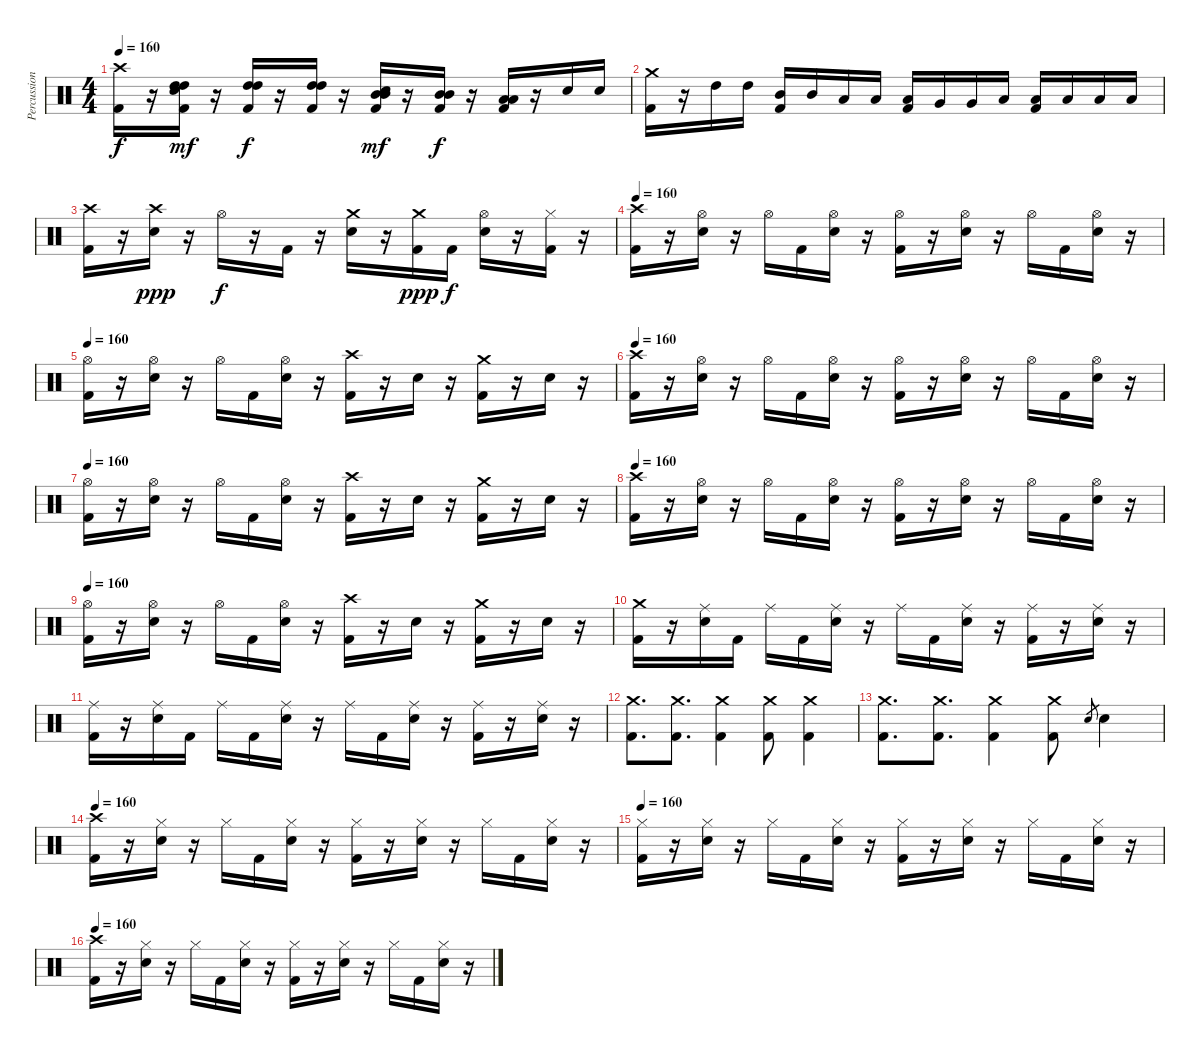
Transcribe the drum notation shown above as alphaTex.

\track ("Percussion" "Percussion") {instrument percussion}
\staff {score}
\articulation defaults
\ts (4 4)
\tempo 160
\clef neutral
\ks c
("Crash high (hit)" "Kick (hit) 2").16{dy f} r.16 ("High Tom (hit)" "Snare (hit) 2" "High Tom (hit)" "Kick (hit) 2").16{dy mf} r.16 ("High Tom (hit)" "High Tom (hit)" "Kick (hit) 2").16{dy f} r.16 ("High Tom (hit)" "High Tom (hit)" "Kick (hit) 2").16 r.16 ("Mid Tom (hit)" "Snare (hit) 2" "Mid Tom (hit)" "Kick (hit) 2").16{dy mf} r.16 ("Mid Tom (hit)" "Mid Tom (hit)" "Kick (hit) 2").16{dy f} r.16 ("Low Tom (hit)" "Low Tom (hit)" "Kick (hit) 2").16 r.16 "Snare (hit) 2".16 "Snare (hit) 2".16 |
("Crash medium (hit)" "Kick (hit) 2").16 r.16 "High Tom (hit)".16 "High Tom (hit)".16 ("Mid Tom (hit)" "Kick (hit) 2").16 "Mid Tom (hit)".16 "Low Tom (hit)".16 "Low Tom (hit)".16 ("Low Tom (hit)" "Kick (hit) 2").16 "Very Low Tom (hit)".16 "Very Low Tom (hit)".16 "Low Floor Tom (hit)".16 ("Low Floor Tom (hit)" "Kick (hit) 2").16 "Low Floor Tom (hit)".16 "Low Floor Tom (hit)".16 "Low Floor Tom (hit)".16 |
("Crash high (hit)" "Kick (hit) 2").16 r.16 ("Crash high (hit)" "Snare (hit) 2").16{dy ppp} r.16 "Hi-Hat (open)".16{dy f} r.16 "Kick (hit) 2".16 r.16 ("Crash medium (hit)" "Snare (hit) 2").16 r.16 ("Crash medium (hit)" "Kick (hit) 2").16{dy ppp} "Kick (hit) 2".16{dy f} ("Hi-Hat (open)" "Snare (hit) 2").16 r.16 ("Hi-Hat (closed)" "Kick (hit) 2").16 r.16 |
\tempo 160
("Crash high (hit)" "Kick (hit) 2").16 r.16 ("Hi-Hat (open)" "Snare (hit) 2").16 r.16 "Hi-Hat (open)".16 "Kick (hit) 2".16 ("Hi-Hat (open)" "Snare (hit) 2").16 r.16 ("Hi-Hat (open)" "Kick (hit) 2").16 r.16 ("Hi-Hat (open)" "Snare (hit) 2").16 r.16 "Hi-Hat (open)".16 "Kick (hit) 2".16 ("Hi-Hat (open)" "Snare (hit) 2").16 r.16 |
\tempo 160
("Hi-Hat (open)" "Kick (hit) 2").16 r.16 ("Hi-Hat (open)" "Snare (hit) 2").16 r.16 "Hi-Hat (open)".16 "Kick (hit) 2".16 ("Hi-Hat (open)" "Snare (hit) 2").16 r.16 ("Crash high (hit)" "Kick (hit) 2").16 r.16 "Snare (hit) 2".16 r.16 ("Crash medium (hit)" "Kick (hit) 2").16 r.16 "Snare (hit) 2".16 r.16 |
\tempo 160
("Crash high (hit)" "Kick (hit) 2").16 r.16 ("Hi-Hat (open)" "Snare (hit) 2").16 r.16 "Hi-Hat (open)".16 "Kick (hit) 2".16 ("Hi-Hat (open)" "Snare (hit) 2").16 r.16 ("Hi-Hat (open)" "Kick (hit) 2").16 r.16 ("Hi-Hat (open)" "Snare (hit) 2").16 r.16 "Hi-Hat (open)".16 "Kick (hit) 2".16 ("Hi-Hat (open)" "Snare (hit) 2").16 r.16 |
\tempo 160
("Hi-Hat (open)" "Kick (hit) 2").16 r.16 ("Hi-Hat (open)" "Snare (hit) 2").16 r.16 "Hi-Hat (open)".16 "Kick (hit) 2".16 ("Hi-Hat (open)" "Snare (hit) 2").16 r.16 ("Crash high (hit)" "Kick (hit) 2").16 r.16 "Snare (hit) 2".16 r.16 ("Crash medium (hit)" "Kick (hit) 2").16 r.16 "Snare (hit) 2".16 r.16 |
\tempo 160
("Crash high (hit)" "Kick (hit) 2").16 r.16 ("Hi-Hat (open)" "Snare (hit) 2").16 r.16 "Hi-Hat (open)".16 "Kick (hit) 2".16 ("Hi-Hat (open)" "Snare (hit) 2").16 r.16 ("Hi-Hat (open)" "Kick (hit) 2").16 r.16 ("Hi-Hat (open)" "Snare (hit) 2").16 r.16 "Hi-Hat (open)".16 "Kick (hit) 2".16 ("Hi-Hat (open)" "Snare (hit) 2").16 r.16 |
\tempo 160
("Hi-Hat (open)" "Kick (hit) 2").16 r.16 ("Hi-Hat (open)" "Snare (hit) 2").16 r.16 "Hi-Hat (open)".16 "Kick (hit) 2".16 ("Hi-Hat (open)" "Snare (hit) 2").16 r.16 ("Crash high (hit)" "Kick (hit) 2").16 r.16 "Snare (hit) 2".16 r.16 ("Crash medium (hit)" "Kick (hit) 2").16 r.16 "Snare (hit) 2".16 r.16 |
("Crash medium (hit)" "Kick (hit) 2").16 r.16 ("Ride (middle)" "Snare (hit) 2").16 "Kick (hit) 2".16 "Ride (middle)".16 "Kick (hit) 2".16 ("Ride (middle)" "Snare (hit) 2").16 r.16 "Ride (middle)".16 "Kick (hit) 2".16 ("Ride (middle)" "Snare (hit) 2").16 r.16 ("Ride (middle)" "Kick (hit) 2").16 r.16 ("Ride (middle)" "Snare (hit) 2").16 r.16 |
("Ride (middle)" "Kick (hit) 2").16 r.16 ("Ride (middle)" "Snare (hit) 2").16 "Kick (hit) 2".16 "Ride (middle)".16 "Kick (hit) 2".16 ("Ride (middle)" "Snare (hit) 2").16 r.16 "Ride (middle)".16 "Kick (hit) 2".16 ("Ride (middle)" "Snare (hit) 2").16 r.16 ("Ride (middle)" "Kick (hit) 2").16 r.16 ("Ride (middle)" "Snare (hit) 2").16 r.16 |
("Crash medium (hit)" "Kick (hit) 2").8{d} ("Crash medium (hit)" "Kick (hit) 2").8{d} ("Crash medium (hit)" "Kick (hit) 2").4 ("Crash medium (hit)" "Kick (hit) 2").8 ("Crash medium (hit)" "Kick (hit) 2").4 |
("Crash medium (hit)" "Kick (hit) 2").8{d} ("Crash medium (hit)" "Kick (hit) 2").8{d} ("Crash medium (hit)" "Kick (hit) 2").4 ("Crash medium (hit)" "Kick (hit) 2").8 "Snare (hit) 2".8{gr} "Snare (hit) 2".4 |
\tempo 160
("Crash high (hit)" "Kick (hit) 2").16 r.16 ("Hi-Hat (closed)" "Snare (hit) 2").16 r.16 "Hi-Hat (closed)".16 "Kick (hit) 2".16 ("Hi-Hat (closed)" "Snare (hit) 2").16 r.16 ("Hi-Hat (closed)" "Kick (hit) 2").16 r.16 ("Hi-Hat (closed)" "Snare (hit) 2").16 r.16 "Hi-Hat (closed)".16 "Kick (hit) 2".16 ("Hi-Hat (closed)" "Snare (hit) 2").16 r.16 |
\tempo 160
("Hi-Hat (closed)" "Kick (hit) 2").16 r.16 ("Hi-Hat (closed)" "Snare (hit) 2").16 r.16 "Hi-Hat (closed)".16 "Kick (hit) 2".16 ("Hi-Hat (closed)" "Snare (hit) 2").16 r.16 ("Hi-Hat (closed)" "Kick (hit) 2").16 r.16 ("Hi-Hat (closed)" "Snare (hit) 2").16 r.16 "Hi-Hat (closed)".16 "Kick (hit) 2".16 ("Hi-Hat (closed)" "Snare (hit) 2").16 r.16 |
\tempo 160
("Crash high (hit)" "Kick (hit) 2").16 r.16 ("Hi-Hat (closed)" "Snare (hit) 2").16 r.16 "Hi-Hat (closed)".16 "Kick (hit) 2".16 ("Hi-Hat (closed)" "Snare (hit) 2").16 r.16 ("Hi-Hat (closed)" "Kick (hit) 2").16 r.16 ("Hi-Hat (closed)" "Snare (hit) 2").16 r.16 "Hi-Hat (closed)".16 "Kick (hit) 2".16 ("Hi-Hat (closed)" "Snare (hit) 2").16 r.16
